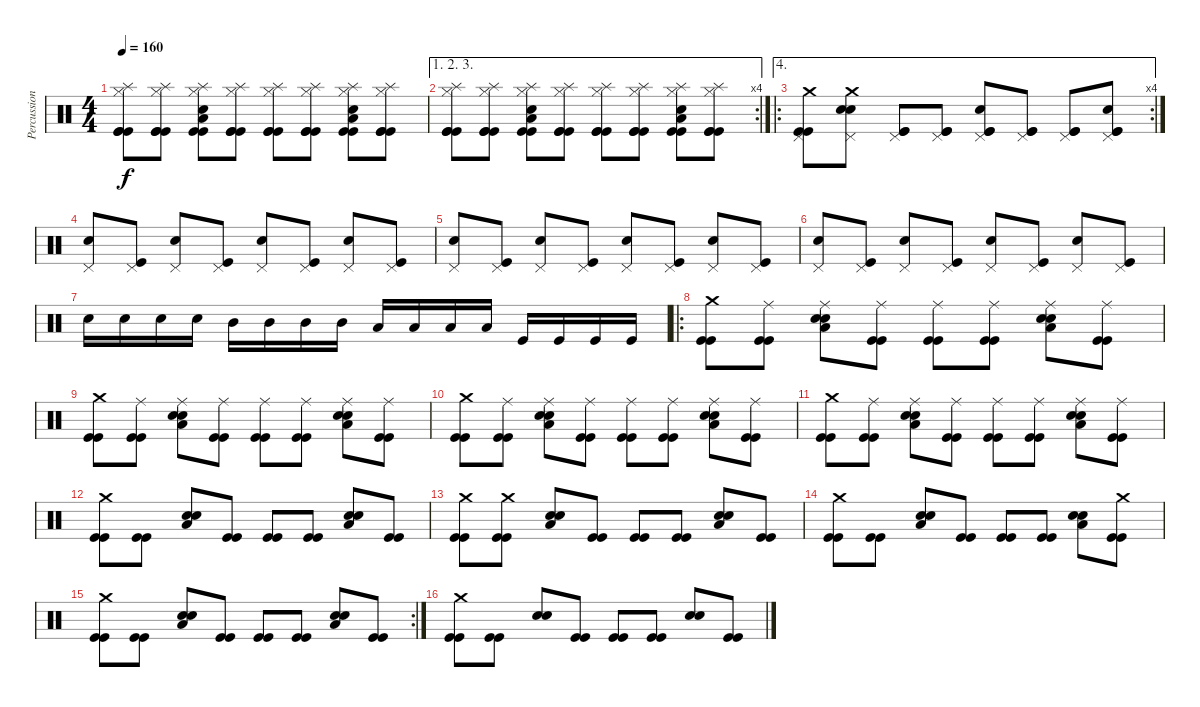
\track ("Percussion" "Percussion") {instrument percussion}
\staff {score}
\articulation defaults
\ts (4 4)
\tempo 160
\clef neutral
\ks c
("Hi-Hat (closed)" "Splash (hit)" "Kick (hit)" "Kick (hit)" "Kick (hit)").8{dy f} ("Hi-Hat (closed)" "Splash (hit)" "Kick (hit)" "Kick (hit)" "Kick (hit)").8 ("Hi-Hat (closed)" "Splash (hit)" "Low Tom (hit)" "Electric Snare (hit)" "Kick (hit)" "Kick (hit)").8 ("Hi-Hat (closed)" "Splash (hit)" "Kick (hit)" "Kick (hit)" "Kick (hit)").8 ("Hi-Hat (closed)" "Splash (hit)" "Kick (hit)" "Kick (hit)" "Kick (hit)").8 ("Hi-Hat (closed)" "Splash (hit)" "Kick (hit)" "Kick (hit)" "Kick (hit)").8 ("Hi-Hat (closed)" "Splash (hit)" "Low Tom (hit)" "Electric Snare (hit)" "Kick (hit)" "Kick (hit)").8 ("Hi-Hat (closed)" "Splash (hit)" "Kick (hit)" "Kick (hit)" "Kick (hit)").8 |
\ae (1 2 3)
\rc 4
("Hi-Hat (closed)" "Splash (hit)" "Kick (hit)" "Kick (hit)" "Kick (hit)").8 ("Hi-Hat (closed)" "Splash (hit)" "Kick (hit)" "Kick (hit)" "Kick (hit)").8 ("Hi-Hat (closed)" "Splash (hit)" "Low Tom (hit)" "Electric Snare (hit)" "Kick (hit)" "Kick (hit)").8 ("Hi-Hat (closed)" "Splash (hit)" "Kick (hit)" "Kick (hit)" "Kick (hit)").8 ("Hi-Hat (closed)" "Splash (hit)" "Kick (hit)" "Kick (hit)" "Kick (hit)").8 ("Hi-Hat (closed)" "Splash (hit)" "Kick (hit)" "Kick (hit)" "Kick (hit)").8 ("Hi-Hat (closed)" "Splash (hit)" "Low Tom (hit)" "Electric Snare (hit)" "Kick (hit)" "Kick (hit)").8 ("Hi-Hat (closed)" "Splash (hit)" "Kick (hit)" "Kick (hit)" "Kick (hit)").8 |
\ae 4
\ro
\rc 4
("Pedal Hi-Hat (hit)" "Crash medium (hit)" "Kick (hit)" "Kick (hit)").8 ("Pedal Hi-Hat (hit)" "Crash medium (hit)" "Electric Snare (hit)" "Electric Snare (hit)").8 ("Pedal Hi-Hat (hit)" "Kick (hit)" "Kick (hit)").8 ("Pedal Hi-Hat (hit)" "Kick (hit)" "Kick (hit)").8 ("Pedal Hi-Hat (hit)" "Electric Snare (hit)" "Kick (hit)" "Kick (hit)").8 ("Pedal Hi-Hat (hit)" "Kick (hit)" "Kick (hit)").8 ("Pedal Hi-Hat (hit)" "Kick (hit)" "Kick (hit)").8 ("Pedal Hi-Hat (hit)" "Electric Snare (hit)" "Kick (hit)" "Kick (hit)").8 |
("Pedal Hi-Hat (hit)" "Electric Snare (hit)").8 ("Pedal Hi-Hat (hit)" "Kick (hit)").8 ("Pedal Hi-Hat (hit)" "Electric Snare (hit)").8 ("Pedal Hi-Hat (hit)" "Kick (hit)").8 ("Pedal Hi-Hat (hit)" "Electric Snare (hit)").8 ("Pedal Hi-Hat (hit)" "Kick (hit)").8 ("Pedal Hi-Hat (hit)" "Electric Snare (hit)").8 ("Pedal Hi-Hat (hit)" "Kick (hit)").8 |
("Pedal Hi-Hat (hit)" "Electric Snare (hit)").8 ("Pedal Hi-Hat (hit)" "Kick (hit)").8 ("Pedal Hi-Hat (hit)" "Electric Snare (hit)").8 ("Pedal Hi-Hat (hit)" "Kick (hit)").8 ("Pedal Hi-Hat (hit)" "Electric Snare (hit)").8 ("Pedal Hi-Hat (hit)" "Kick (hit)").8 ("Pedal Hi-Hat (hit)" "Electric Snare (hit)").8 ("Pedal Hi-Hat (hit)" "Kick (hit)").8 |
("Pedal Hi-Hat (hit)" "Electric Snare (hit)").8 ("Pedal Hi-Hat (hit)" "Kick (hit)").8 ("Pedal Hi-Hat (hit)" "Electric Snare (hit)").8 ("Pedal Hi-Hat (hit)" "Kick (hit)").8 ("Pedal Hi-Hat (hit)" "Electric Snare (hit)").8 ("Pedal Hi-Hat (hit)" "Kick (hit)").8 ("Pedal Hi-Hat (hit)" "Electric Snare (hit)").8 ("Pedal Hi-Hat (hit)" "Kick (hit)").8 |
"Electric Snare (hit)".16 "Electric Snare (hit)".16 "Electric Snare (hit)".16 "Electric Snare (hit)".16 "Mid Tom (hit)".16 "Mid Tom (hit)".16 "Mid Tom (hit)".16 "Mid Tom (hit)".16 "Low Tom (hit)".16 "Low Tom (hit)".16 "Low Tom (hit)".16 "Low Tom (hit)".16 "Kick (hit)".16 "Kick (hit)".16 "Kick (hit)".16 "Kick (hit)".16 |
\ro
("Crash medium (hit)" "Kick (hit)" "Kick (hit)").8 ("Ride (middle)" "Kick (hit)" "Kick (hit)").8 ("Ride (middle)" "Electric Snare (hit)" "Electric Snare (hit)" "Low Tom (hit)").8 ("Ride (middle)" "Kick (hit)" "Kick (hit)").8 ("Ride (middle)" "Kick (hit)" "Kick (hit)").8 ("Ride (middle)" "Kick (hit)" "Kick (hit)").8 ("Ride (middle)" "Electric Snare (hit)" "Electric Snare (hit)" "Low Tom (hit)").8 ("Ride (middle)" "Kick (hit)" "Kick (hit)").8 |
("Crash medium (hit)" "Kick (hit)" "Kick (hit)").8 ("Ride (middle)" "Kick (hit)" "Kick (hit)").8 ("Ride (middle)" "Electric Snare (hit)" "Electric Snare (hit)" "Low Tom (hit)").8 ("Ride (middle)" "Kick (hit)" "Kick (hit)").8 ("Ride (middle)" "Kick (hit)" "Kick (hit)").8 ("Ride (middle)" "Kick (hit)" "Kick (hit)").8 ("Ride (middle)" "Electric Snare (hit)" "Electric Snare (hit)" "Low Tom (hit)").8 ("Ride (middle)" "Kick (hit)" "Kick (hit)").8 |
("Crash medium (hit)" "Kick (hit)" "Kick (hit)").8 ("Ride (middle)" "Kick (hit)" "Kick (hit)").8 ("Ride (middle)" "Electric Snare (hit)" "Electric Snare (hit)" "Low Tom (hit)").8 ("Ride (middle)" "Kick (hit)" "Kick (hit)").8 ("Ride (middle)" "Kick (hit)" "Kick (hit)").8 ("Ride (middle)" "Kick (hit)" "Kick (hit)").8 ("Ride (middle)" "Electric Snare (hit)" "Electric Snare (hit)" "Low Tom (hit)").8 ("Ride (middle)" "Kick (hit)" "Kick (hit)").8 |
("Crash medium (hit)" "Kick (hit)" "Kick (hit)").8 ("Ride (middle)" "Kick (hit)" "Kick (hit)").8 ("Ride (middle)" "Electric Snare (hit)" "Electric Snare (hit)" "Low Tom (hit)").8 ("Ride (middle)" "Kick (hit)" "Kick (hit)").8 ("Ride (middle)" "Kick (hit)" "Kick (hit)").8 ("Ride (middle)" "Kick (hit)" "Kick (hit)").8 ("Ride (middle)" "Electric Snare (hit)" "Electric Snare (hit)" "Low Tom (hit)").8 ("Ride (middle)" "Kick (hit)" "Kick (hit)").8 |
("Crash medium (hit)" "Kick (hit)" "Kick (hit)").8 ("Kick (hit)" "Kick (hit)").8 ("Electric Snare (hit)" "Electric Snare (hit)" "Low Tom (hit)").8 ("Kick (hit)" "Kick (hit)").8 ("Kick (hit)" "Kick (hit)").8 ("Kick (hit)" "Kick (hit)").8 ("Electric Snare (hit)" "Electric Snare (hit)" "Low Tom (hit)").8 ("Kick (hit)" "Kick (hit)").8 |
("Crash medium (hit)" "Kick (hit)" "Kick (hit)").8 ("Crash medium (hit)" "Kick (hit)" "Kick (hit)").8 ("Electric Snare (hit)" "Electric Snare (hit)" "Low Tom (hit)").8 ("Kick (hit)" "Kick (hit)").8 ("Kick (hit)" "Kick (hit)").8 ("Kick (hit)" "Kick (hit)").8 ("Electric Snare (hit)" "Electric Snare (hit)" "Low Tom (hit)").8 ("Kick (hit)" "Kick (hit)").8 |
("Crash medium (hit)" "Kick (hit)" "Kick (hit)").8 ("Kick (hit)" "Kick (hit)").8 ("Electric Snare (hit)" "Electric Snare (hit)" "Low Tom (hit)").8 ("Kick (hit)" "Kick (hit)").8 ("Kick (hit)" "Kick (hit)").8 ("Kick (hit)" "Kick (hit)").8 ("Electric Snare (hit)" "Electric Snare (hit)" "Low Tom (hit)").8 ("Crash medium (hit)" "Kick (hit)" "Kick (hit)").8 |
\rc 2
("Crash medium (hit)" "Kick (hit)" "Kick (hit)").8 ("Kick (hit)" "Kick (hit)").8 ("Electric Snare (hit)" "Electric Snare (hit)" "Low Tom (hit)").8 ("Kick (hit)" "Kick (hit)").8 ("Kick (hit)" "Kick (hit)").8 ("Kick (hit)" "Kick (hit)").8 ("Electric Snare (hit)" "Electric Snare (hit)" "Low Tom (hit)").8 ("Kick (hit)" "Kick (hit)").8 |
("Crash medium (hit)" "Kick (hit)" "Kick (hit)").8 ("Kick (hit)" "Kick (hit)").8 ("Electric Snare (hit)" "Electric Snare (hit)").8 ("Kick (hit)" "Kick (hit)").8 ("Kick (hit)" "Kick (hit)").8 ("Kick (hit)" "Kick (hit)").8 ("Electric Snare (hit)" "Electric Snare (hit)").8 ("Kick (hit)" "Kick (hit)").8
